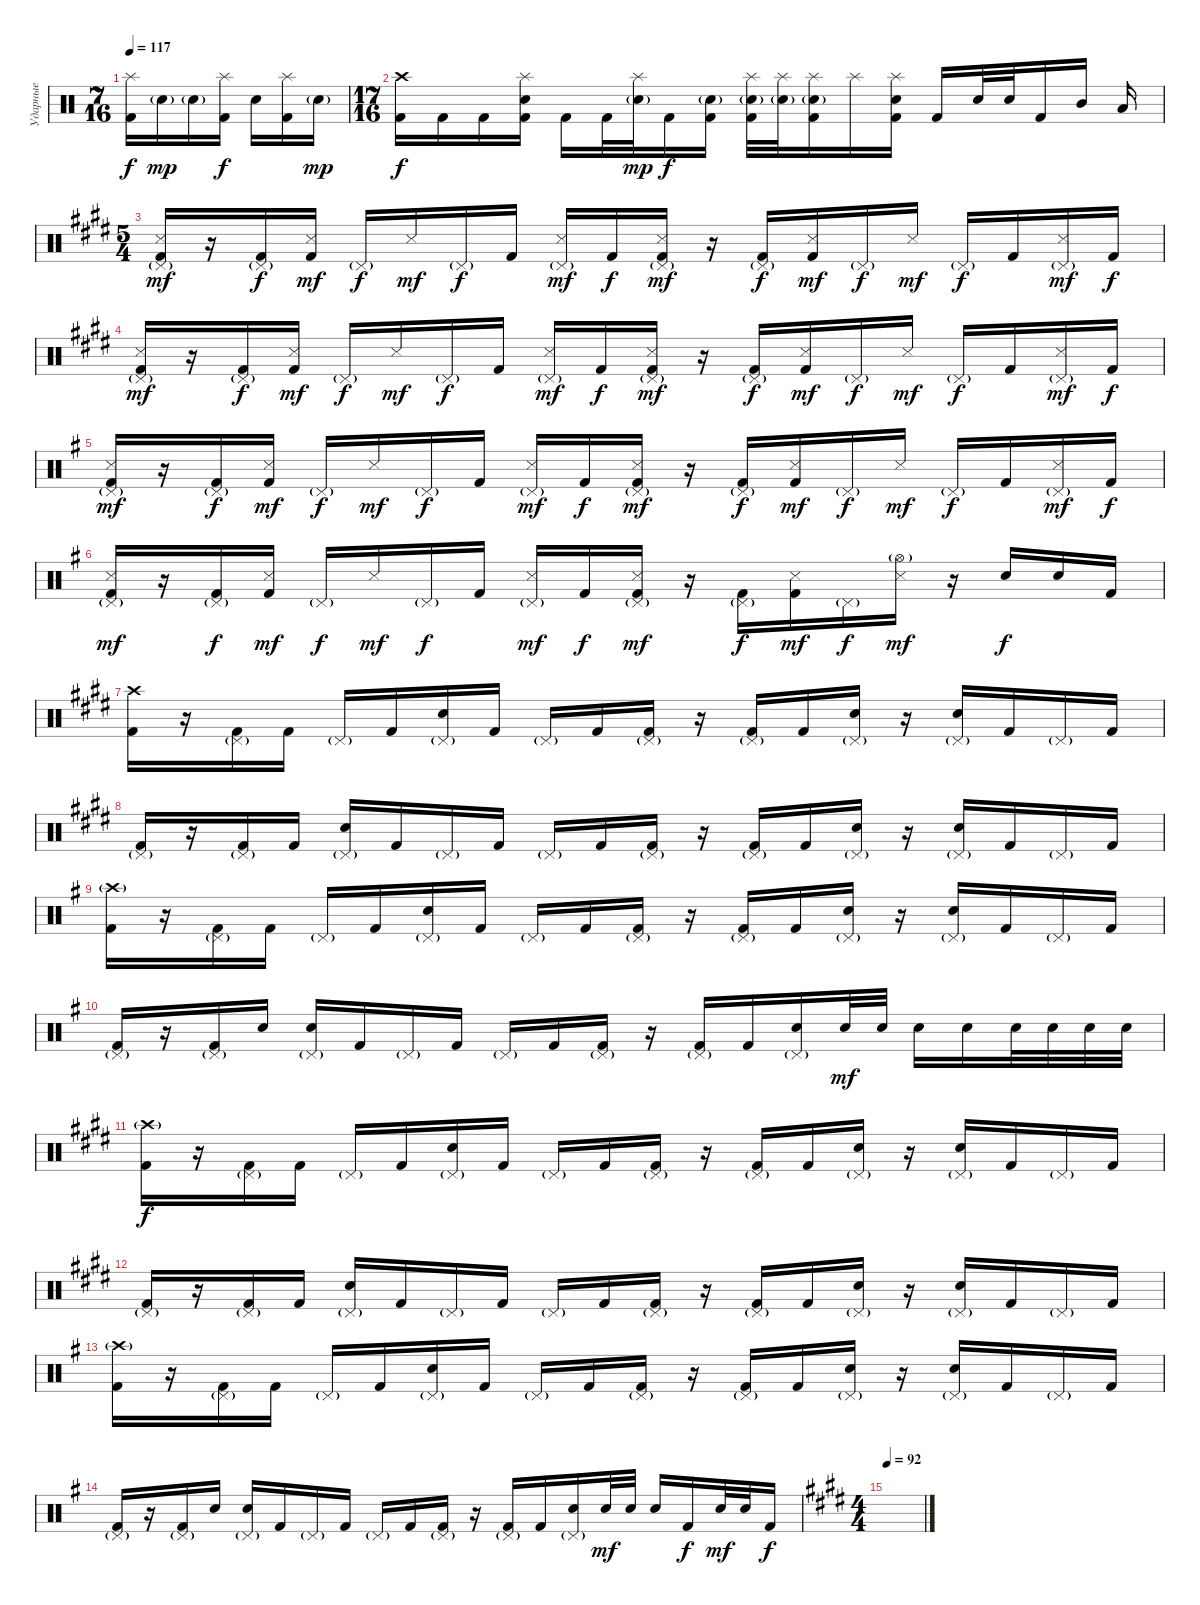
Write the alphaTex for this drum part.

\track ("Ударные" "Ударные") {instrument percussion}
\staff {score}
\articulation defaults
\ts (7 16)
\tempo 117
\clef neutral
\ks c
("Splash (hit)" "Kick (hit) 2").16{dy f} "Electric Snare (hit)"{g}.16{dy mp} "Electric Snare (hit)"{g}.16 ("Splash (hit)" "Kick (hit) 2").16{dy f} "Electric Snare (hit)".16 ("Splash (hit)" "Kick (hit) 2").16 "Electric Snare (hit)"{g}.16{dy mp} |
\ts (17 16)
("Crash high (hit)" "Kick (hit) 2").16{dy f} "Kick (hit) 2".16 "Kick (hit) 2".16 ("Splash (hit)" "Electric Snare (hit)" "Kick (hit) 2").16 "Kick (hit) 2".16 "Kick (hit) 2".32 ("Splash (hit)" "Electric Snare (hit)"{g}).32{dy mp} "Kick (hit) 2".16{dy f} ("Electric Snare (hit)"{g} "Kick (hit) 2").16 ("Splash (hit)" "Electric Snare (hit)"{g} "Kick (hit) 2").32 ("Splash (hit)" "Electric Snare (hit)"{g}).32 ("Splash (hit)" "Electric Snare (hit)"{g} "Kick (hit) 2").16 "Splash (hit)".16 ("Splash (hit)" "Electric Snare (hit)" "Kick (hit) 2").16 "Kick (hit) 2".16 "Electric Snare (hit)".32 "Electric Snare (hit)".32 "Kick (hit) 2".16 "Mid Tom (hit)".16 "Low Tom (hit)".16 |
\ts (5 4)
\ks e
("Pedal Hi-Hat (hit)"{g} "Snare (side stick) 3" "Kick (hit) 2").16{dy mf} r.16 ("Pedal Hi-Hat (hit)"{g} "Kick (hit) 2").16{dy f} ("Snare (side stick) 3" "Kick (hit) 2").16{dy mf} "Pedal Hi-Hat (hit)"{g}.16{dy f} "Snare (side stick) 3".16{dy mf} "Pedal Hi-Hat (hit)"{g}.16{dy f} "Kick (hit) 2".16 ("Pedal Hi-Hat (hit)"{g} "Snare (side stick) 3").16{dy mf} "Kick (hit) 2".16{dy f} ("Pedal Hi-Hat (hit)"{g} "Snare (side stick) 3" "Kick (hit) 2").16{dy mf} r.16 ("Pedal Hi-Hat (hit)"{g} "Kick (hit) 2").16{dy f} ("Snare (side stick) 3" "Kick (hit) 2").16{dy mf} "Pedal Hi-Hat (hit)"{g}.16{dy f} "Snare (side stick) 3".16{dy mf} "Pedal Hi-Hat (hit)"{g}.16{dy f} "Kick (hit) 2".16 ("Pedal Hi-Hat (hit)"{g} "Snare (side stick) 3").16{dy mf} "Kick (hit) 2".16{dy f} |
("Pedal Hi-Hat (hit)"{g} "Snare (side stick) 3" "Kick (hit) 2").16{dy mf} r.16 ("Pedal Hi-Hat (hit)"{g} "Kick (hit) 2").16{dy f} ("Snare (side stick) 3" "Kick (hit) 2").16{dy mf} "Pedal Hi-Hat (hit)"{g}.16{dy f} "Snare (side stick) 3".16{dy mf} "Pedal Hi-Hat (hit)"{g}.16{dy f} "Kick (hit) 2".16 ("Pedal Hi-Hat (hit)"{g} "Snare (side stick) 3").16{dy mf} "Kick (hit) 2".16{dy f} ("Pedal Hi-Hat (hit)"{g} "Snare (side stick) 3" "Kick (hit) 2").16{dy mf} r.16 ("Pedal Hi-Hat (hit)"{g} "Kick (hit) 2").16{dy f} ("Snare (side stick) 3" "Kick (hit) 2").16{dy mf} "Pedal Hi-Hat (hit)"{g}.16{dy f} "Snare (side stick) 3".16{dy mf} "Pedal Hi-Hat (hit)"{g}.16{dy f} "Kick (hit) 2".16 ("Pedal Hi-Hat (hit)"{g} "Snare (side stick) 3").16{dy mf} "Kick (hit) 2".16{dy f} |
\ks g
("Pedal Hi-Hat (hit)"{g} "Snare (side stick) 3" "Kick (hit) 2").16{dy mf} r.16 ("Pedal Hi-Hat (hit)"{g} "Kick (hit) 2").16{dy f} ("Snare (side stick) 3" "Kick (hit) 2").16{dy mf} "Pedal Hi-Hat (hit)"{g}.16{dy f} "Snare (side stick) 3".16{dy mf} "Pedal Hi-Hat (hit)"{g}.16{dy f} "Kick (hit) 2".16 ("Pedal Hi-Hat (hit)"{g} "Snare (side stick) 3").16{dy mf} "Kick (hit) 2".16{dy f} ("Pedal Hi-Hat (hit)"{g} "Snare (side stick) 3" "Kick (hit) 2").16{dy mf} r.16 ("Pedal Hi-Hat (hit)"{g} "Kick (hit) 2").16{dy f} ("Snare (side stick) 3" "Kick (hit) 2").16{dy mf} "Pedal Hi-Hat (hit)"{g}.16{dy f} "Snare (side stick) 3".16{dy mf} "Pedal Hi-Hat (hit)"{g}.16{dy f} "Kick (hit) 2".16 ("Pedal Hi-Hat (hit)"{g} "Snare (side stick) 3").16{dy mf} "Kick (hit) 2".16{dy f} |
("Pedal Hi-Hat (hit)"{g} "Snare (side stick) 3" "Kick (hit) 2").16{dy mf} r.16 ("Pedal Hi-Hat (hit)"{g} "Kick (hit) 2").16{dy f} ("Snare (side stick) 3" "Kick (hit) 2").16{dy mf} "Pedal Hi-Hat (hit)"{g}.16{dy f} "Snare (side stick) 3".16{dy mf} "Pedal Hi-Hat (hit)"{g}.16{dy f} "Kick (hit) 2".16 ("Pedal Hi-Hat (hit)"{g} "Snare (side stick) 3").16{dy mf} "Kick (hit) 2".16{dy f} ("Pedal Hi-Hat (hit)"{g} "Snare (side stick) 3" "Kick (hit) 2").16{dy mf} r.16 ("Pedal Hi-Hat (hit)"{g} "Kick (hit) 2").16{dy f} ("Snare (side stick) 3" "Kick (hit) 2").16{dy mf} "Pedal Hi-Hat (hit)"{g}.16{dy f} ("Hi-Hat (open)"{g} "Snare (side stick) 3").16{dy mf} r.16 "Electric Snare (hit)".16{dy f} "Electric Snare (hit)".16 "Kick (hit) 2".16 |
\ks e
("Crash high (hit)" "Kick (hit) 2").16 r.16 ("Pedal Hi-Hat (hit)"{g} "Kick (hit) 2").16 "Kick (hit) 2".16 "Pedal Hi-Hat (hit)"{g}.16 "Kick (hit) 2".16 ("Pedal Hi-Hat (hit)"{g} "Electric Snare (hit)").16 "Kick (hit) 2".16 "Pedal Hi-Hat (hit)"{g}.16 "Kick (hit) 2".16 ("Pedal Hi-Hat (hit)"{g} "Kick (hit) 2").16 r.16 ("Pedal Hi-Hat (hit)"{g} "Kick (hit) 2").16 "Kick (hit) 2".16 ("Pedal Hi-Hat (hit)"{g} "Electric Snare (hit)").16 r.16 ("Pedal Hi-Hat (hit)"{g} "Electric Snare (hit)").16 "Kick (hit) 2".16 "Pedal Hi-Hat (hit)"{g}.16 "Kick (hit) 2".16 |
("Pedal Hi-Hat (hit)"{g} "Kick (hit) 2").16 r.16 ("Pedal Hi-Hat (hit)"{g} "Kick (hit) 2").16 "Kick (hit) 2".16 ("Pedal Hi-Hat (hit)"{g} "Electric Snare (hit)").16 "Kick (hit) 2".16 "Pedal Hi-Hat (hit)"{g}.16 "Kick (hit) 2".16 "Pedal Hi-Hat (hit)"{g}.16 "Kick (hit) 2".16 ("Pedal Hi-Hat (hit)"{g} "Kick (hit) 2").16 r.16 ("Pedal Hi-Hat (hit)"{g} "Kick (hit) 2").16 "Kick (hit) 2".16 ("Pedal Hi-Hat (hit)"{g} "Electric Snare (hit)").16 r.16 ("Pedal Hi-Hat (hit)"{g} "Electric Snare (hit)").16 "Kick (hit) 2".16 "Pedal Hi-Hat (hit)"{g}.16 "Kick (hit) 2".16 |
\ks g
("Crash high (hit)"{g} "Kick (hit) 2").16 r.16 ("Pedal Hi-Hat (hit)"{g} "Kick (hit) 2").16 "Kick (hit) 2".16 "Pedal Hi-Hat (hit)"{g}.16 "Kick (hit) 2".16 ("Pedal Hi-Hat (hit)"{g} "Electric Snare (hit)").16 "Kick (hit) 2".16 "Pedal Hi-Hat (hit)"{g}.16 "Kick (hit) 2".16 ("Pedal Hi-Hat (hit)"{g} "Kick (hit) 2").16 r.16 ("Pedal Hi-Hat (hit)"{g} "Kick (hit) 2").16 "Kick (hit) 2".16 ("Pedal Hi-Hat (hit)"{g} "Electric Snare (hit)").16 r.16 ("Pedal Hi-Hat (hit)"{g} "Electric Snare (hit)").16 "Kick (hit) 2".16 "Pedal Hi-Hat (hit)"{g}.16 "Kick (hit) 2".16 |
("Pedal Hi-Hat (hit)"{g} "Kick (hit) 2").16 r.16 ("Pedal Hi-Hat (hit)"{g} "Kick (hit) 2").16 "Electric Snare (hit)".16 ("Pedal Hi-Hat (hit)"{g} "Electric Snare (hit)").16 "Kick (hit) 2".16 "Pedal Hi-Hat (hit)"{g}.16 "Kick (hit) 2".16 "Pedal Hi-Hat (hit)"{g}.16 "Kick (hit) 2".16 ("Pedal Hi-Hat (hit)"{g} "Kick (hit) 2").16 r.16 ("Pedal Hi-Hat (hit)"{g} "Kick (hit) 2").16 "Kick (hit) 2".16 ("Pedal Hi-Hat (hit)"{g} "Electric Snare (hit)").16 "Electric Snare (hit)".32{dy mf} "Electric Snare (hit)".32 "Electric Snare (hit)".16 "Electric Snare (hit)".16 "Electric Snare (hit)".32 "Electric Snare (hit)".32 "Electric Snare (hit)".32 "Electric Snare (hit)".32 |
\ks e
("Crash high (hit)"{g} "Kick (hit) 2").16{dy f} r.16 ("Pedal Hi-Hat (hit)"{g} "Kick (hit) 2").16 "Kick (hit) 2".16 "Pedal Hi-Hat (hit)"{g}.16 "Kick (hit) 2".16 ("Pedal Hi-Hat (hit)"{g} "Electric Snare (hit)").16 "Kick (hit) 2".16 "Pedal Hi-Hat (hit)"{g}.16 "Kick (hit) 2".16 ("Pedal Hi-Hat (hit)"{g} "Kick (hit) 2").16 r.16 ("Pedal Hi-Hat (hit)"{g} "Kick (hit) 2").16 "Kick (hit) 2".16 ("Pedal Hi-Hat (hit)"{g} "Electric Snare (hit)").16 r.16 ("Pedal Hi-Hat (hit)"{g} "Electric Snare (hit)").16 "Kick (hit) 2".16 "Pedal Hi-Hat (hit)"{g}.16 "Kick (hit) 2".16 |
("Pedal Hi-Hat (hit)"{g} "Kick (hit) 2").16 r.16 ("Pedal Hi-Hat (hit)"{g} "Kick (hit) 2").16 "Kick (hit) 2".16 ("Pedal Hi-Hat (hit)"{g} "Electric Snare (hit)").16 "Kick (hit) 2".16 "Pedal Hi-Hat (hit)"{g}.16 "Kick (hit) 2".16 "Pedal Hi-Hat (hit)"{g}.16 "Kick (hit) 2".16 ("Pedal Hi-Hat (hit)"{g} "Kick (hit) 2").16 r.16 ("Pedal Hi-Hat (hit)"{g} "Kick (hit) 2").16 "Kick (hit) 2".16 ("Pedal Hi-Hat (hit)"{g} "Electric Snare (hit)").16 r.16 ("Pedal Hi-Hat (hit)"{g} "Electric Snare (hit)").16 "Kick (hit) 2".16 "Pedal Hi-Hat (hit)"{g}.16 "Kick (hit) 2".16 |
\ks g
("Crash high (hit)"{g} "Kick (hit) 2").16 r.16 ("Pedal Hi-Hat (hit)"{g} "Kick (hit) 2").16 "Kick (hit) 2".16 "Pedal Hi-Hat (hit)"{g}.16 "Kick (hit) 2".16 ("Pedal Hi-Hat (hit)"{g} "Electric Snare (hit)").16 "Kick (hit) 2".16 "Pedal Hi-Hat (hit)"{g}.16 "Kick (hit) 2".16 ("Pedal Hi-Hat (hit)"{g} "Kick (hit) 2").16 r.16 ("Pedal Hi-Hat (hit)"{g} "Kick (hit) 2").16 "Kick (hit) 2".16 ("Pedal Hi-Hat (hit)"{g} "Electric Snare (hit)").16 r.16 ("Pedal Hi-Hat (hit)"{g} "Electric Snare (hit)").16 "Kick (hit) 2".16 "Pedal Hi-Hat (hit)"{g}.16 "Kick (hit) 2".16 |
("Pedal Hi-Hat (hit)"{g} "Kick (hit) 2").16 r.16 ("Pedal Hi-Hat (hit)"{g} "Kick (hit) 2").16 "Electric Snare (hit)".16 ("Pedal Hi-Hat (hit)"{g} "Electric Snare (hit)").16 "Kick (hit) 2".16 "Pedal Hi-Hat (hit)"{g}.16 "Kick (hit) 2".16 "Pedal Hi-Hat (hit)"{g}.16 "Kick (hit) 2".16 ("Pedal Hi-Hat (hit)"{g} "Kick (hit) 2").16 r.16 ("Pedal Hi-Hat (hit)"{g} "Kick (hit) 2").16 "Kick (hit) 2".16 ("Pedal Hi-Hat (hit)"{g} "Electric Snare (hit)").16 "Electric Snare (hit)".32{dy mf} "Electric Snare (hit)".32 "Electric Snare (hit)".16 "Kick (hit) 2".16{dy f} "Electric Snare (hit)".32{dy mf} "Electric Snare (hit)".32 "Kick (hit) 2".16{dy f} |
\ts (4 4)
\tempo 92
\ks e
